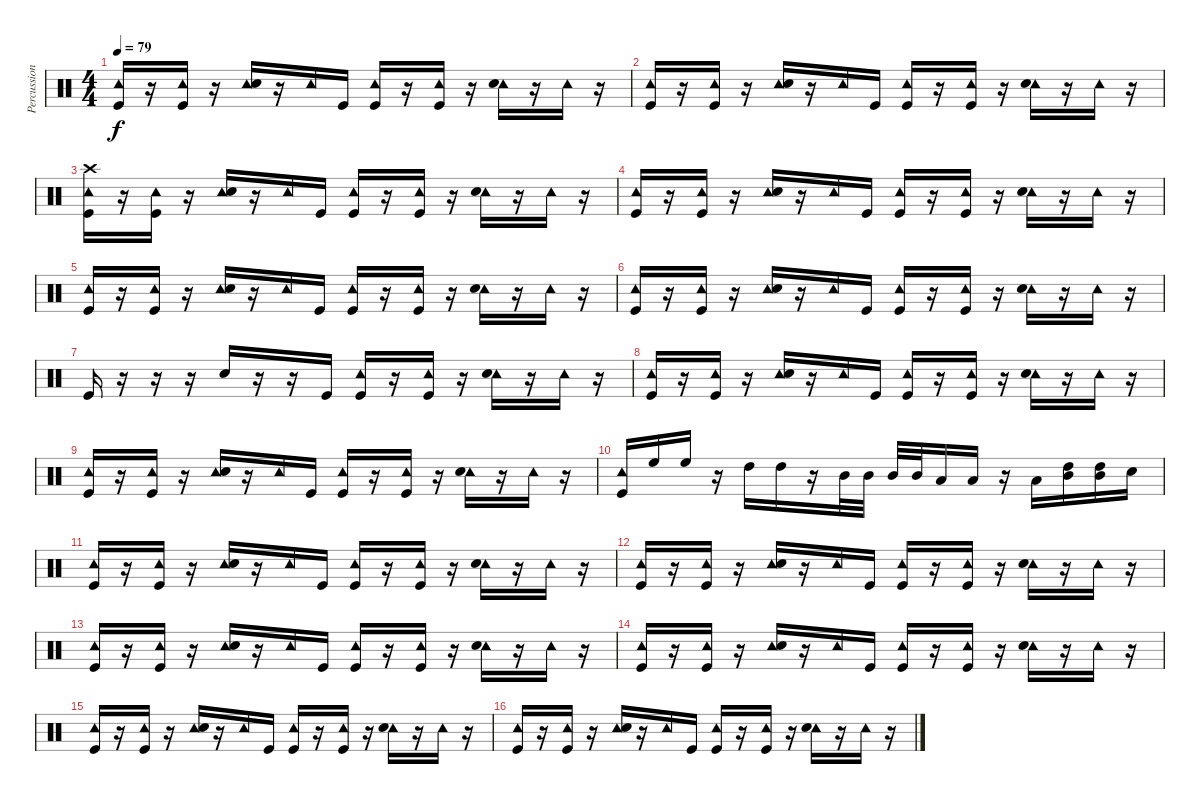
\track ("Percussions" "Percussion") {instrument percussion}
\staff {score}
\articulation defaults
\ts (4 4)
\tempo 79
\clef neutral
\ks c
("Tambourine (hit)" "Kick (hit)").16{dy f} r.16 ("Tambourine (hit)" "Kick (hit)").16 r.16 ("Tambourine (hit)" "Electric Snare (hit)").16 r.16 "Tambourine (hit)".16 "Kick (hit)".16 ("Tambourine (hit)" "Kick (hit)").16 r.16 ("Tambourine (hit)" "Kick (hit)").16 r.16 ("Tambourine (hit)" "Electric Snare (hit)").16 r.16 "Tambourine (hit)".16 r.16 |
("Tambourine (hit)" "Kick (hit)").16 r.16 ("Tambourine (hit)" "Kick (hit)").16 r.16 ("Tambourine (hit)" "Electric Snare (hit)").16 r.16 "Tambourine (hit)".16 "Kick (hit)".16 ("Tambourine (hit)" "Kick (hit)").16 r.16 ("Tambourine (hit)" "Kick (hit)").16 r.16 ("Tambourine (hit)" "Electric Snare (hit)").16 r.16 "Tambourine (hit)".16 r.16 |
("Tambourine (hit)" "Crash high (hit)" "Kick (hit)").16 r.16 ("Tambourine (hit)" "Kick (hit)").16 r.16 ("Tambourine (hit)" "Electric Snare (hit)").16 r.16 "Tambourine (hit)".16 "Kick (hit)".16 ("Tambourine (hit)" "Kick (hit)").16 r.16 ("Tambourine (hit)" "Kick (hit)").16 r.16 ("Tambourine (hit)" "Electric Snare (hit)").16 r.16 "Tambourine (hit)".16 r.16 |
("Tambourine (hit)" "Kick (hit)").16 r.16 ("Tambourine (hit)" "Kick (hit)").16 r.16 ("Tambourine (hit)" "Electric Snare (hit)").16 r.16 "Tambourine (hit)".16 "Kick (hit)".16 ("Tambourine (hit)" "Kick (hit)").16 r.16 ("Tambourine (hit)" "Kick (hit)").16 r.16 ("Tambourine (hit)" "Electric Snare (hit)").16 r.16 "Tambourine (hit)".16 r.16 |
("Tambourine (hit)" "Kick (hit)").16 r.16 ("Tambourine (hit)" "Kick (hit)").16 r.16 ("Tambourine (hit)" "Electric Snare (hit)").16 r.16 "Tambourine (hit)".16 "Kick (hit)".16 ("Tambourine (hit)" "Kick (hit)").16 r.16 ("Tambourine (hit)" "Kick (hit)").16 r.16 ("Tambourine (hit)" "Electric Snare (hit)").16 r.16 "Tambourine (hit)".16 r.16 |
("Tambourine (hit)" "Kick (hit)").16 r.16 ("Tambourine (hit)" "Kick (hit)").16 r.16 ("Tambourine (hit)" "Electric Snare (hit)").16 r.16 "Tambourine (hit)".16 "Kick (hit)".16 ("Tambourine (hit)" "Kick (hit)").16 r.16 ("Tambourine (hit)" "Kick (hit)").16 r.16 ("Tambourine (hit)" "Electric Snare (hit)").16 r.16 "Tambourine (hit)".16 r.16 |
"Kick (hit)".16 r.16 r.16 r.16 "Electric Snare (hit)".16 r.16 r.16 "Kick (hit)".16 ("Tambourine (hit)" "Kick (hit)").16 r.16 ("Tambourine (hit)" "Kick (hit)").16 r.16 ("Tambourine (hit)" "Electric Snare (hit)").16 r.16 "Tambourine (hit)".16 r.16 |
("Tambourine (hit)" "Kick (hit)").16 r.16 ("Tambourine (hit)" "Kick (hit)").16 r.16 ("Tambourine (hit)" "Electric Snare (hit)").16 r.16 "Tambourine (hit)".16 "Kick (hit)".16 ("Tambourine (hit)" "Kick (hit)").16 r.16 ("Tambourine (hit)" "Kick (hit)").16 r.16 ("Tambourine (hit)" "Electric Snare (hit)").16 r.16 "Tambourine (hit)".16 r.16 |
("Tambourine (hit)" "Kick (hit)").16 r.16 ("Tambourine (hit)" "Kick (hit)").16 r.16 ("Tambourine (hit)" "Electric Snare (hit)").16 r.16 "Tambourine (hit)".16 "Kick (hit)".16 ("Tambourine (hit)" "Kick (hit)").16 r.16 ("Tambourine (hit)" "Kick (hit)").16 r.16 ("Tambourine (hit)" "Electric Snare (hit)").16 r.16 "Tambourine (hit)".16 r.16 |
("Tambourine (hit)" "Kick (hit)").16 "High Floor Tom (hit)".16 "High Floor Tom (hit)".16 r.16 "High Tom (hit)".16 "High Tom (hit)".16 r.16 "Mid Tom (hit)".32 "Mid Tom (hit)".32 "Mid Tom (hit)".32 "Mid Tom (hit)".32 "Low Tom (hit)".16 "Low Tom (hit)".16 r.16 "Low Floor Tom (hit)".16 ("Mid Tom (hit)" "High Tom (hit)").16 ("High Tom (hit)" "Mid Tom (hit)").16 "Electric Snare (hit)".16 |
("Tambourine (hit)" "Kick (hit)").16 r.16 ("Tambourine (hit)" "Kick (hit)").16 r.16 ("Tambourine (hit)" "Electric Snare (hit)").16 r.16 "Tambourine (hit)".16 "Kick (hit)".16 ("Tambourine (hit)" "Kick (hit)").16 r.16 ("Tambourine (hit)" "Kick (hit)").16 r.16 ("Tambourine (hit)" "Electric Snare (hit)").16 r.16 "Tambourine (hit)".16 r.16 |
("Tambourine (hit)" "Kick (hit)").16 r.16 ("Tambourine (hit)" "Kick (hit)").16 r.16 ("Tambourine (hit)" "Electric Snare (hit)").16 r.16 "Tambourine (hit)".16 "Kick (hit)".16 ("Tambourine (hit)" "Kick (hit)").16 r.16 ("Tambourine (hit)" "Kick (hit)").16 r.16 ("Tambourine (hit)" "Electric Snare (hit)").16 r.16 "Tambourine (hit)".16 r.16 |
("Tambourine (hit)" "Kick (hit)").16 r.16 ("Tambourine (hit)" "Kick (hit)").16 r.16 ("Tambourine (hit)" "Electric Snare (hit)").16 r.16 "Tambourine (hit)".16 "Kick (hit)".16 ("Tambourine (hit)" "Kick (hit)").16 r.16 ("Tambourine (hit)" "Kick (hit)").16 r.16 ("Tambourine (hit)" "Electric Snare (hit)").16 r.16 "Tambourine (hit)".16 r.16 |
("Tambourine (hit)" "Kick (hit)").16 r.16 ("Tambourine (hit)" "Kick (hit)").16 r.16 ("Tambourine (hit)" "Electric Snare (hit)").16 r.16 "Tambourine (hit)".16 "Kick (hit)".16 ("Tambourine (hit)" "Kick (hit)").16 r.16 ("Tambourine (hit)" "Kick (hit)").16 r.16 ("Tambourine (hit)" "Electric Snare (hit)").16 r.16 "Tambourine (hit)".16 r.16 |
("Tambourine (hit)" "Kick (hit)").16 r.16 ("Tambourine (hit)" "Kick (hit)").16 r.16 ("Tambourine (hit)" "Electric Snare (hit)").16 r.16 "Tambourine (hit)".16 "Kick (hit)".16 ("Tambourine (hit)" "Kick (hit)").16 r.16 ("Tambourine (hit)" "Kick (hit)").16 r.16 ("Tambourine (hit)" "Electric Snare (hit)").16 r.16 "Tambourine (hit)".16 r.16 |
("Tambourine (hit)" "Kick (hit)").16 r.16 ("Tambourine (hit)" "Kick (hit)").16 r.16 ("Tambourine (hit)" "Electric Snare (hit)").16 r.16 "Tambourine (hit)".16 "Kick (hit)".16 ("Tambourine (hit)" "Kick (hit)").16 r.16 ("Tambourine (hit)" "Kick (hit)").16 r.16 ("Tambourine (hit)" "Electric Snare (hit)").16 r.16 "Tambourine (hit)".16 r.16
